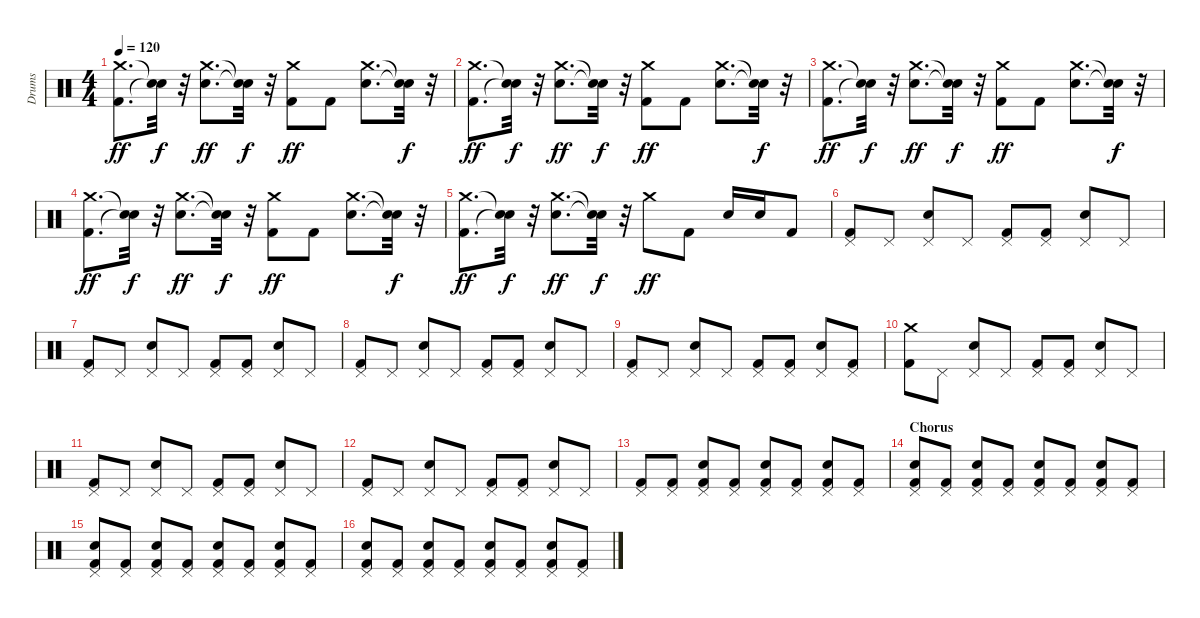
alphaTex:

\track ("Drums" "Drums") {instrument percussion}
\staff {score}
\articulation defaults
\ts (4 4)
\tempo 120
\clef neutral
\ks c
("Crash medium (hit)" "Kick (hit) 2").8{d dy ff} ("Snare (hit)"{t} "Snare (hit)"{t}).32{dy f} r.32 ("Crash medium (hit)" "Snare (hit) 2").8{d dy ff} ("Snare (hit)"{t} "Snare (hit)"{t}).32{dy f} r.32 ("Crash medium (hit)" "Kick (hit) 2").8{dy ff} "Kick (hit) 2".8 ("Crash medium (hit)" "Snare (hit) 2").8{d} ("Snare (hit)"{t} "Snare (hit)"{t}).32{dy f} r.32 |
("Crash medium (hit)" "Kick (hit) 2").8{d dy ff} ("Snare (hit)"{t} "Snare (hit)"{t}).32{dy f} r.32 ("Crash medium (hit)" "Snare (hit) 2").8{d dy ff} ("Snare (hit)"{t} "Snare (hit)"{t}).32{dy f} r.32 ("Crash medium (hit)" "Kick (hit) 2").8{dy ff} "Kick (hit) 2".8 ("Crash medium (hit)" "Snare (hit) 2").8{d} ("Snare (hit)"{t} "Snare (hit)"{t}).32{dy f} r.32 |
("Crash medium (hit)" "Kick (hit) 2").8{d dy ff} ("Snare (hit)"{t} "Snare (hit)"{t}).32{dy f} r.32 ("Crash medium (hit)" "Snare (hit) 2").8{d dy ff} ("Snare (hit)"{t} "Snare (hit)"{t}).32{dy f} r.32 ("Crash medium (hit)" "Kick (hit) 2").8{dy ff} "Kick (hit) 2".8 ("Crash medium (hit)" "Snare (hit) 2").8{d} ("Snare (hit)"{t} "Snare (hit)"{t}).32{dy f} r.32 |
("Crash medium (hit)" "Kick (hit) 2").8{d dy ff} ("Snare (hit)"{t} "Snare (hit)"{t}).32{dy f} r.32 ("Crash medium (hit)" "Snare (hit) 2").8{d dy ff} ("Snare (hit)"{t} "Snare (hit)"{t}).32{dy f} r.32 ("Crash medium (hit)" "Kick (hit) 2").8{dy ff} "Kick (hit) 2".8 ("Crash medium (hit)" "Snare (hit) 2").8{d} ("Snare (hit)"{t} "Snare (hit)"{t}).32{dy f} r.32 |
("Crash medium (hit)" "Kick (hit) 2").8{d dy ff} ("Snare (hit)"{t} "Snare (hit)"{t}).32{dy f} r.32 ("Crash medium (hit)" "Snare (hit) 2").8{d dy ff} ("Snare (hit)"{t} "Snare (hit)"{t}).32{dy f} r.32 "Crash medium (hit)".8{dy ff} "Kick (hit) 2".8 "Snare (hit) 2".16 "Snare (hit) 2".16 "Kick (hit) 2".8 |
("Pedal Hi-Hat (hit)" "Kick (hit) 2").8 "Pedal Hi-Hat (hit)".8 ("Pedal Hi-Hat (hit)" "Snare (hit) 2").8 "Pedal Hi-Hat (hit)".8 ("Pedal Hi-Hat (hit)" "Kick (hit) 2").8 ("Pedal Hi-Hat (hit)" "Kick (hit) 2").8 ("Pedal Hi-Hat (hit)" "Snare (hit) 2").8 "Pedal Hi-Hat (hit)".8 |
("Pedal Hi-Hat (hit)" "Kick (hit) 2").8 "Pedal Hi-Hat (hit)".8 ("Pedal Hi-Hat (hit)" "Snare (hit) 2").8 "Pedal Hi-Hat (hit)".8 ("Pedal Hi-Hat (hit)" "Kick (hit) 2").8 ("Pedal Hi-Hat (hit)" "Kick (hit) 2").8 ("Pedal Hi-Hat (hit)" "Snare (hit) 2").8 "Pedal Hi-Hat (hit)".8 |
("Pedal Hi-Hat (hit)" "Kick (hit) 2").8 "Pedal Hi-Hat (hit)".8 ("Pedal Hi-Hat (hit)" "Snare (hit) 2").8 "Pedal Hi-Hat (hit)".8 ("Pedal Hi-Hat (hit)" "Kick (hit) 2").8 ("Pedal Hi-Hat (hit)" "Kick (hit) 2").8 ("Pedal Hi-Hat (hit)" "Snare (hit) 2").8 "Pedal Hi-Hat (hit)".8 |
("Pedal Hi-Hat (hit)" "Kick (hit) 2").8 "Pedal Hi-Hat (hit)".8 ("Pedal Hi-Hat (hit)" "Snare (hit) 2").8 "Pedal Hi-Hat (hit)".8 ("Pedal Hi-Hat (hit)" "Kick (hit) 2").8 ("Pedal Hi-Hat (hit)" "Kick (hit) 2").8 ("Pedal Hi-Hat (hit)" "Snare (hit) 2").8 ("Pedal Hi-Hat (hit)" "Kick (hit) 2").8 |
("Crash medium (hit)" "Kick (hit) 2").8 "Pedal Hi-Hat (hit)".8 ("Pedal Hi-Hat (hit)" "Snare (hit) 2").8 "Pedal Hi-Hat (hit)".8 ("Pedal Hi-Hat (hit)" "Kick (hit) 2").8 ("Pedal Hi-Hat (hit)" "Kick (hit) 2").8 ("Pedal Hi-Hat (hit)" "Snare (hit) 2").8 "Pedal Hi-Hat (hit)".8 |
("Pedal Hi-Hat (hit)" "Kick (hit) 2").8 "Pedal Hi-Hat (hit)".8 ("Pedal Hi-Hat (hit)" "Snare (hit) 2").8 "Pedal Hi-Hat (hit)".8 ("Pedal Hi-Hat (hit)" "Kick (hit) 2").8 ("Pedal Hi-Hat (hit)" "Kick (hit) 2").8 ("Pedal Hi-Hat (hit)" "Snare (hit) 2").8 "Pedal Hi-Hat (hit)".8 |
("Pedal Hi-Hat (hit)" "Kick (hit) 2").8 "Pedal Hi-Hat (hit)".8 ("Pedal Hi-Hat (hit)" "Snare (hit) 2").8 "Pedal Hi-Hat (hit)".8 ("Pedal Hi-Hat (hit)" "Kick (hit) 2").8 ("Pedal Hi-Hat (hit)" "Kick (hit) 2").8 ("Pedal Hi-Hat (hit)" "Snare (hit) 2").8 "Pedal Hi-Hat (hit)".8 |
("Pedal Hi-Hat (hit)" "Kick (hit) 2").8 ("Pedal Hi-Hat (hit)" "Kick (hit) 2").8 ("Pedal Hi-Hat (hit)" "Snare (hit) 2" "Kick (hit) 2").8 ("Pedal Hi-Hat (hit)" "Kick (hit) 2").8 ("Pedal Hi-Hat (hit)" "Snare (hit) 2" "Kick (hit) 2").8 ("Pedal Hi-Hat (hit)" "Kick (hit) 2").8 ("Pedal Hi-Hat (hit)" "Snare (hit) 2" "Kick (hit) 2").8 ("Pedal Hi-Hat (hit)" "Kick (hit) 2").8 |
\section ("" "Chorus")
("Pedal Hi-Hat (hit)" "Snare (hit) 2" "Kick (hit) 2").8 ("Pedal Hi-Hat (hit)" "Kick (hit) 2").8 ("Pedal Hi-Hat (hit)" "Snare (hit) 2" "Kick (hit) 2").8 ("Pedal Hi-Hat (hit)" "Kick (hit) 2").8 ("Pedal Hi-Hat (hit)" "Snare (hit) 2" "Kick (hit) 2").8 ("Pedal Hi-Hat (hit)" "Kick (hit) 2").8 ("Pedal Hi-Hat (hit)" "Snare (hit) 2" "Kick (hit) 2").8 ("Pedal Hi-Hat (hit)" "Kick (hit) 2").8 |
("Pedal Hi-Hat (hit)" "Snare (hit) 2" "Kick (hit) 2").8 ("Pedal Hi-Hat (hit)" "Kick (hit) 2").8 ("Pedal Hi-Hat (hit)" "Snare (hit) 2" "Kick (hit) 2").8 ("Pedal Hi-Hat (hit)" "Kick (hit) 2").8 ("Pedal Hi-Hat (hit)" "Snare (hit) 2" "Kick (hit) 2").8 ("Pedal Hi-Hat (hit)" "Kick (hit) 2").8 ("Pedal Hi-Hat (hit)" "Snare (hit) 2" "Kick (hit) 2").8 ("Pedal Hi-Hat (hit)" "Kick (hit) 2").8 |
("Pedal Hi-Hat (hit)" "Snare (hit) 2" "Kick (hit) 2").8 ("Pedal Hi-Hat (hit)" "Kick (hit) 2").8 ("Pedal Hi-Hat (hit)" "Snare (hit) 2" "Kick (hit) 2").8 ("Pedal Hi-Hat (hit)" "Kick (hit) 2").8 ("Pedal Hi-Hat (hit)" "Snare (hit) 2" "Kick (hit) 2").8 ("Pedal Hi-Hat (hit)" "Kick (hit) 2").8 ("Pedal Hi-Hat (hit)" "Snare (hit) 2" "Kick (hit) 2").8 ("Pedal Hi-Hat (hit)" "Kick (hit) 2").8
